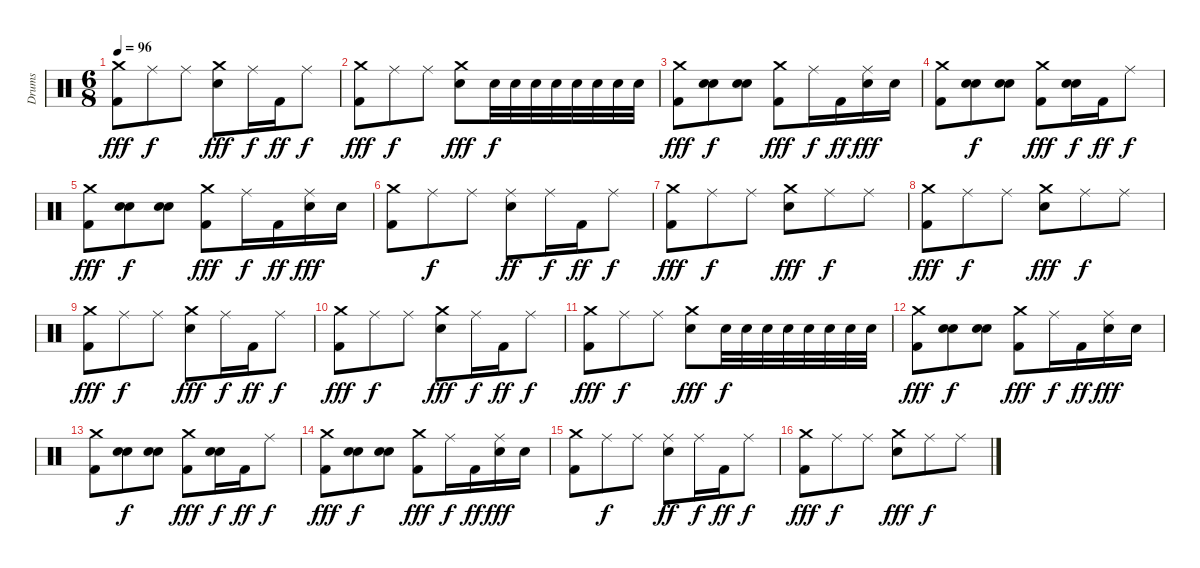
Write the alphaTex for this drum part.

\track ("Drums" "Drums") {instrument percussion}
\staff {score}
\articulation defaults
\ts (6 8)
\tempo 96
\clef neutral
\ks c
("Kick (hit) 2" "Crash medium (hit)").8{dy fff} "Ride (middle)".8{dy f} "Ride (middle)".8 ("Electric Snare (hit)" "Crash medium (hit)").8{dy fff} "Ride (middle)".16{dy f} "Kick (hit) 2".16{dy ff} "Ride (middle)".8{dy f} |
("Kick (hit) 2" "Crash medium (hit)").8{dy fff} "Ride (middle)".8{dy f} "Ride (middle)".8 ("Electric Snare (hit)" "Crash medium (hit)").8{dy fff} "Electric Snare (hit)".32{dy f} "Electric Snare (hit)".32 "Electric Snare (hit)".32 "Electric Snare (hit)".32 "Electric Snare (hit)".32 "Electric Snare (hit)".32 "Electric Snare (hit)".32 "Electric Snare (hit)".32 |
("Kick (hit) 2" "Crash medium (hit)").8{dy fff} ("Electric Snare (hit)" "Electric Snare (hit)").8{dy f} ("Electric Snare (hit)" "Electric Snare (hit)").8 ("Kick (hit) 2" "Crash medium (hit)").8{dy fff} "Ride (middle)".16{dy f} "Kick (hit) 2".16{dy ff} ("Ride (middle)" "Electric Snare (hit)").16{dy fff} "Electric Snare (hit)".16 |
("Kick (hit) 2" "Crash medium (hit)").8 ("Electric Snare (hit)" "Electric Snare (hit)").8{dy f} ("Electric Snare (hit)" "Electric Snare (hit)").8 ("Kick (hit) 2" "Crash medium (hit)").8{dy fff} ("Electric Snare (hit)" "Electric Snare (hit)").16{dy f} "Kick (hit) 2".16{dy ff} "Ride (middle)".8{dy f} |
("Kick (hit) 2" "Crash medium (hit)").8{dy fff} ("Electric Snare (hit)" "Electric Snare (hit)").8{dy f} ("Electric Snare (hit)" "Electric Snare (hit)").8 ("Kick (hit) 2" "Crash medium (hit)").8{dy fff} "Ride (middle)".16{dy f} "Kick (hit) 2".16{dy ff} ("Ride (middle)" "Electric Snare (hit)").16{dy fff} "Electric Snare (hit)".16 |
("Kick (hit) 2" "Crash medium (hit)").8 "Ride (middle)".8{dy f} "Ride (middle)".8 ("Electric Snare (hit)" "Ride (middle)").8{dy ff} "Ride (middle)".16{dy f} "Kick (hit) 2".16{dy ff} "Ride (middle)".8{dy f} |
("Kick (hit) 2" "Crash medium (hit)").8{dy fff} "Ride (middle)".8{dy f} "Ride (middle)".8 ("Electric Snare (hit)" "Crash medium (hit)").8{dy fff} "Ride (middle)".8{dy f} "Ride (middle)".8 |
("Kick (hit) 2" "Crash medium (hit)").8{dy fff} "Ride (middle)".8{dy f} "Ride (middle)".8 ("Electric Snare (hit)" "Crash medium (hit)").8{dy fff} "Ride (middle)".8{dy f} "Ride (middle)".8 |
("Kick (hit) 2" "Crash medium (hit)").8{dy fff} "Ride (middle)".8{dy f} "Ride (middle)".8 ("Electric Snare (hit)" "Crash medium (hit)").8{dy fff} "Ride (middle)".16{dy f} "Kick (hit) 2".16{dy ff} "Ride (middle)".8{dy f} |
("Kick (hit) 2" "Crash medium (hit)").8{dy fff} "Ride (middle)".8{dy f} "Ride (middle)".8 ("Electric Snare (hit)" "Crash medium (hit)").8{dy fff} "Ride (middle)".16{dy f} "Kick (hit) 2".16{dy ff} "Ride (middle)".8{dy f} |
("Kick (hit) 2" "Crash medium (hit)").8{dy fff} "Ride (middle)".8{dy f} "Ride (middle)".8 ("Electric Snare (hit)" "Crash medium (hit)").8{dy fff} "Electric Snare (hit)".32{dy f} "Electric Snare (hit)".32 "Electric Snare (hit)".32 "Electric Snare (hit)".32 "Electric Snare (hit)".32 "Electric Snare (hit)".32 "Electric Snare (hit)".32 "Electric Snare (hit)".32 |
("Kick (hit) 2" "Crash medium (hit)").8{dy fff} ("Electric Snare (hit)" "Electric Snare (hit)").8{dy f} ("Electric Snare (hit)" "Electric Snare (hit)").8 ("Kick (hit) 2" "Crash medium (hit)").8{dy fff} "Ride (middle)".16{dy f} "Kick (hit) 2".16{dy ff} ("Ride (middle)" "Electric Snare (hit)").16{dy fff} "Electric Snare (hit)".16 |
("Kick (hit) 2" "Crash medium (hit)").8 ("Electric Snare (hit)" "Electric Snare (hit)").8{dy f} ("Electric Snare (hit)" "Electric Snare (hit)").8 ("Kick (hit) 2" "Crash medium (hit)").8{dy fff} ("Electric Snare (hit)" "Electric Snare (hit)").16{dy f} "Kick (hit) 2".16{dy ff} "Ride (middle)".8{dy f} |
("Kick (hit) 2" "Crash medium (hit)").8{dy fff} ("Electric Snare (hit)" "Electric Snare (hit)").8{dy f} ("Electric Snare (hit)" "Electric Snare (hit)").8 ("Kick (hit) 2" "Crash medium (hit)").8{dy fff} "Ride (middle)".16{dy f} "Kick (hit) 2".16{dy ff} ("Ride (middle)" "Electric Snare (hit)").16{dy fff} "Electric Snare (hit)".16 |
("Kick (hit) 2" "Crash medium (hit)").8 "Ride (middle)".8{dy f} "Ride (middle)".8 ("Electric Snare (hit)" "Ride (middle)").8{dy ff} "Ride (middle)".16{dy f} "Kick (hit) 2".16{dy ff} "Ride (middle)".8{dy f} |
("Kick (hit) 2" "Crash medium (hit)").8{dy fff} "Ride (middle)".8{dy f} "Ride (middle)".8 ("Electric Snare (hit)" "Crash medium (hit)").8{dy fff} "Ride (middle)".8{dy f} "Ride (middle)".8
